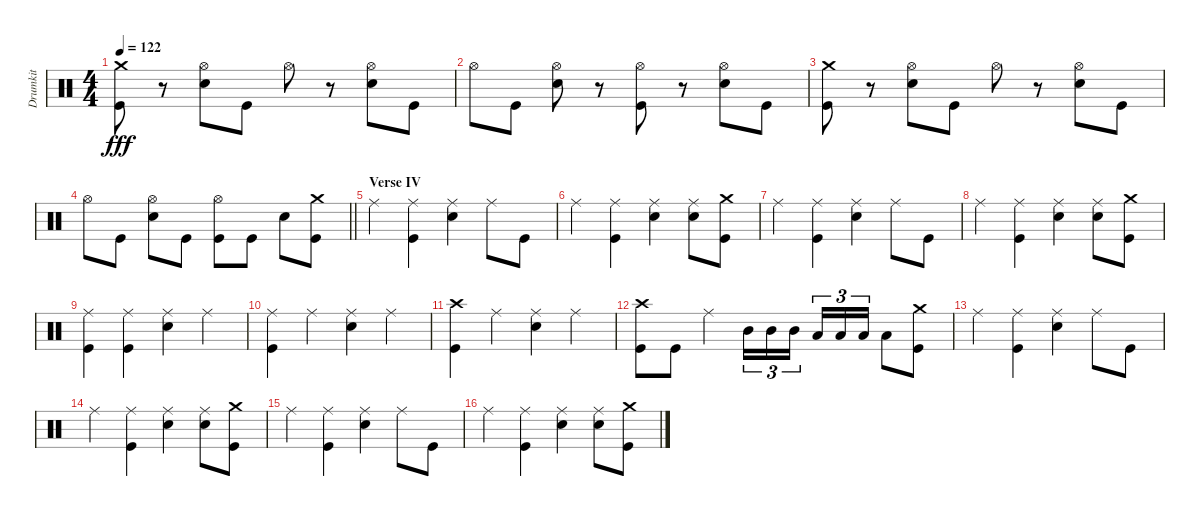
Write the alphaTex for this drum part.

\track ("Drumkit" "Drumkit") {instrument percussion}
\staff {score}
\articulation defaults
\ts (4 4)
\tempo 122
\clef neutral
\ks c
("Kick (hit)" "Crash medium (hit)").8{dy fff} r.8 ("Hi-Hat (open)" "Snare (hit) 2").8 "Kick (hit)".8 "Hi-Hat (open)".8 r.8 ("Hi-Hat (open)" "Snare (hit) 2").8 "Kick (hit)".8 |
"Hi-Hat (open)".8 "Kick (hit)".8 ("Hi-Hat (open)" "Snare (hit) 2").8 r.8 ("Hi-Hat (open)" "Kick (hit)").8 r.8 ("Hi-Hat (open)" "Snare (hit) 2").8 "Kick (hit)".8 |
("Kick (hit)" "Crash medium (hit)").8 r.8 ("Hi-Hat (open)" "Snare (hit) 2").8 "Kick (hit)".8 "Hi-Hat (open)".8 r.8 ("Hi-Hat (open)" "Snare (hit) 2").8 "Kick (hit)".8 |
\barLineRight lightlight "Hi-Hat (open)".8 "Kick (hit)".8
("Hi-Hat (open)" "Snare (hit) 2").8 "Kick (hit)".8 ("Hi-Hat (open)" "Kick (hit)").8 "Kick (hit)".8 "Snare (hit) 2".8 ("Crash medium (hit)" "Kick (hit)").8 |
\section ("" "Verse IV")
"Ride (middle)".4 ("Ride (middle)" "Kick (hit)").4 ("Ride (middle)" "Snare (hit) 2").4 "Ride (middle)".8 "Kick (hit)".8 |
"Ride (middle)".4 ("Ride (middle)" "Kick (hit)").4 ("Ride (middle)" "Snare (hit) 2").4 ("Ride (middle)" "Snare (hit) 2").8 ("Kick (hit)" "Crash medium (hit)").8 |
"Ride (middle)".4 ("Ride (middle)" "Kick (hit)").4 ("Ride (middle)" "Snare (hit) 2").4 "Ride (middle)".8 "Kick (hit)".8 |
"Ride (middle)".4 ("Ride (middle)" "Kick (hit)").4 ("Ride (middle)" "Snare (hit) 2").4 ("Ride (middle)" "Snare (hit) 2").8 ("Kick (hit)" "Crash medium (hit)").8 |
("Ride (middle)" "Kick (hit)").4 ("Ride (middle)" "Kick (hit)").4 ("Ride (middle)" "Snare (hit) 2").4 "Ride (middle)".4 |
("Ride (middle)" "Kick (hit)").4 "Ride (middle)".4 ("Ride (middle)" "Snare (hit) 2").4 "Ride (middle)".4 |
("Kick (hit)" "Crash high (hit)").4 "Ride (middle)".4 ("Ride (middle)" "Snare (hit) 2").4 "Ride (middle)".4 |
("Kick (hit)" "Crash high (hit)").8 "Kick (hit)".8 "Ride (middle)".4 "Mid Tom (hit)".16{tu (3 2)} "Mid Tom (hit)".16{tu (3 2)} "Mid Tom (hit)".16{tu (3 2) beam splitsecondary} "Low Tom (hit)".16{tu (3 2)} "Low Tom (hit)".16{tu (3 2)} "Low Tom (hit)".16{tu (3 2)} "Low Tom (hit)".8 ("Crash medium (hit)" "Kick (hit)").8 |
"Ride (middle)".4 ("Ride (middle)" "Kick (hit)").4 ("Ride (middle)" "Snare (hit) 2").4 "Ride (middle)".8 "Kick (hit)".8 |
"Ride (middle)".4 ("Ride (middle)" "Kick (hit)").4 ("Ride (middle)" "Snare (hit) 2").4 ("Ride (middle)" "Snare (hit) 2").8 ("Kick (hit)" "Crash medium (hit)").8 |
"Ride (middle)".4 ("Ride (middle)" "Kick (hit)").4 ("Ride (middle)" "Snare (hit) 2").4 "Ride (middle)".8 "Kick (hit)".8 |
"Ride (middle)".4 ("Ride (middle)" "Kick (hit)").4 ("Ride (middle)" "Snare (hit) 2").4 ("Ride (middle)" "Snare (hit) 2").8 ("Kick (hit)" "Crash medium (hit)").8
